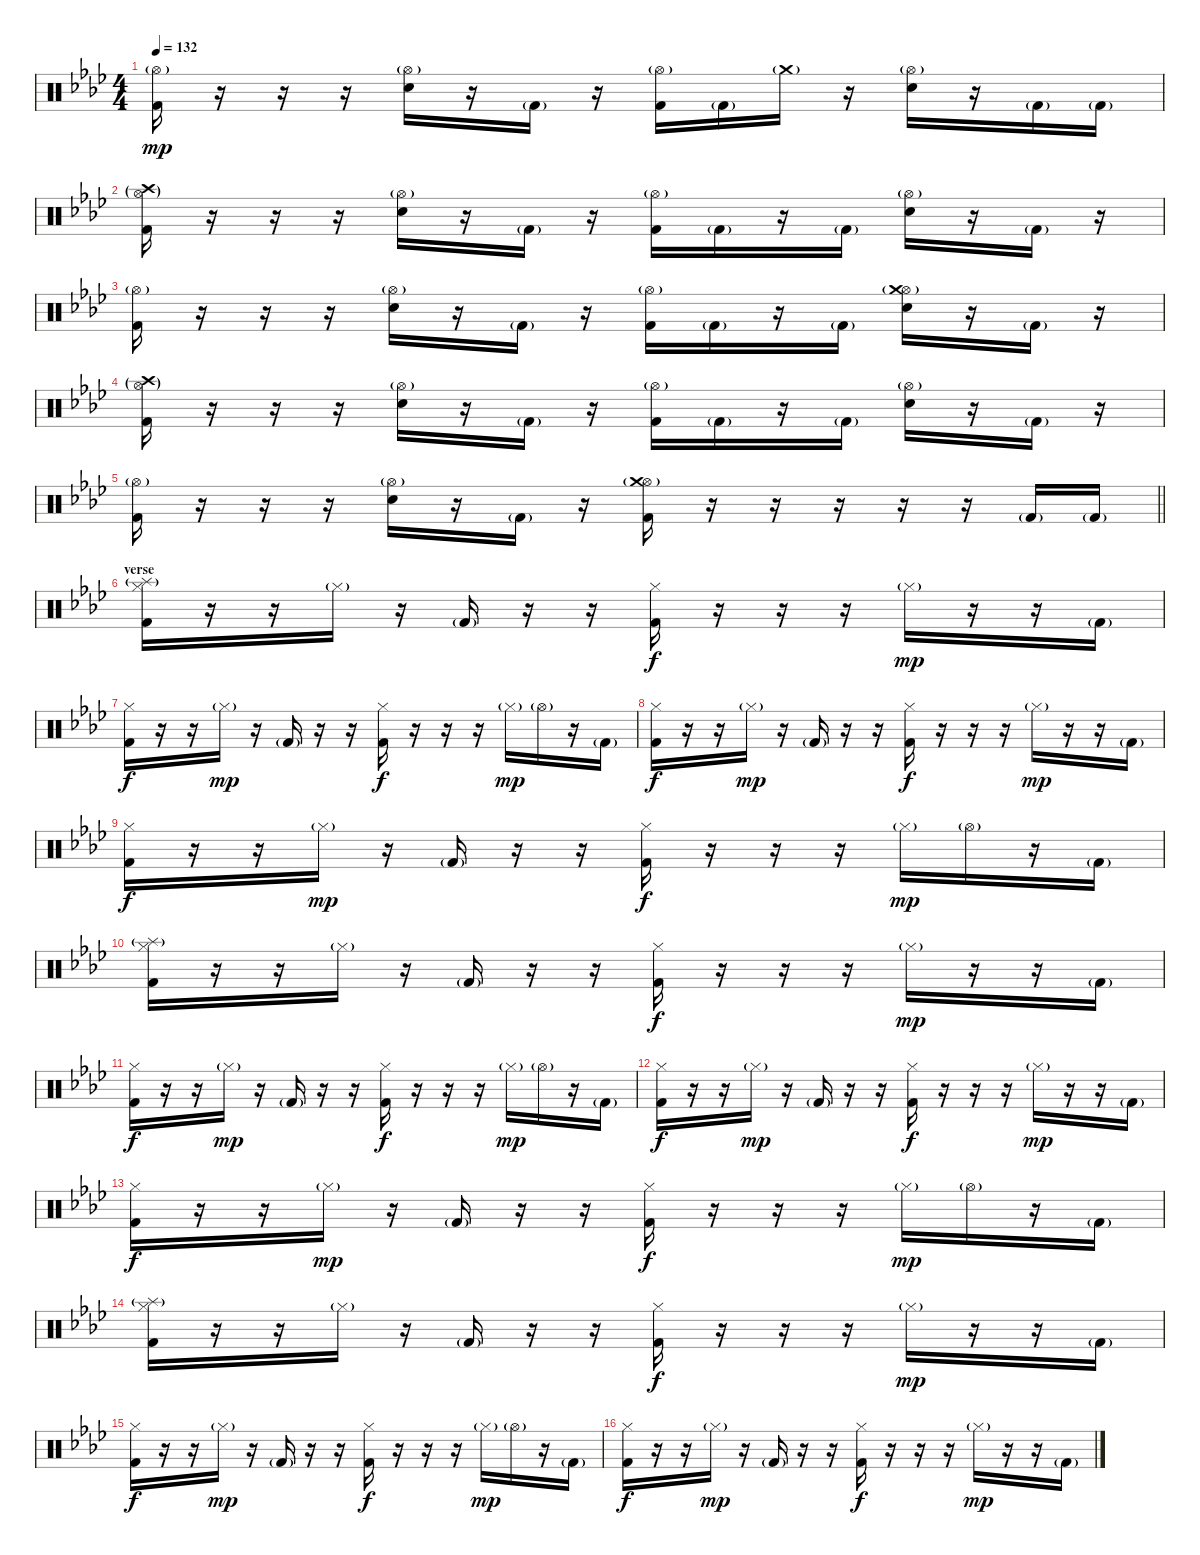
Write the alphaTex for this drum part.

\track "" {instrument percussion}
\staff {score}
\articulation defaults
\ts (4 4)
\tempo 132
\clef neutral
\ks fminor
("Kick (hit) 2" "Hi-Hat (open)"{g}).16{dy mp} r.16 r.16 r.16 ("Electric Snare (hit)" "Hi-Hat (open)"{g}).16 r.16 "Kick (hit) 2"{g}.16 r.16 ("Kick (hit) 2" "Hi-Hat (open)"{g}).16 "Kick (hit) 2"{g}.16 "Crash medium (hit)"{g}.16 r.16 ("Electric Snare (hit)" "Hi-Hat (open)"{g}).16 r.16 "Kick (hit) 2"{g}.16 "Kick (hit) 2"{g}.16 |
("Kick (hit) 2" "Hi-Hat (open)"{g} "Crash high (hit)"{g}).16 r.16 r.16 r.16 ("Electric Snare (hit)" "Hi-Hat (open)"{g}).16 r.16 "Kick (hit) 2"{g}.16 r.16 ("Kick (hit) 2" "Hi-Hat (open)"{g}).16 "Kick (hit) 2"{g}.16 r.16 "Kick (hit) 2"{g}.16 ("Electric Snare (hit)" "Hi-Hat (open)"{g}).16 r.16 "Kick (hit) 2"{g}.16 r.16 |
("Kick (hit) 2" "Hi-Hat (open)"{g}).16 r.16 r.16 r.16 ("Electric Snare (hit)" "Hi-Hat (open)"{g}).16 r.16 "Kick (hit) 2"{g}.16 r.16 ("Kick (hit) 2" "Hi-Hat (open)"{g}).16 "Kick (hit) 2"{g}.16 r.16 "Kick (hit) 2"{g}.16 ("Electric Snare (hit)" "Hi-Hat (open)"{g} "Crash medium (hit)"{g}).16 r.16 "Kick (hit) 2"{g}.16 r.16 |
("Kick (hit) 2" "Hi-Hat (open)"{g} "Crash high (hit)"{g}).16 r.16 r.16 r.16 ("Electric Snare (hit)" "Hi-Hat (open)"{g}).16 r.16 "Kick (hit) 2"{g}.16 r.16 ("Kick (hit) 2" "Hi-Hat (open)"{g}).16 "Kick (hit) 2"{g}.16 r.16 "Kick (hit) 2"{g}.16 ("Electric Snare (hit)" "Hi-Hat (open)"{g}).16 r.16 "Kick (hit) 2"{g}.16 r.16 |
\barLineRight lightlight
("Kick (hit) 2" "Hi-Hat (open)"{g}).16 r.16 r.16 r.16 ("Electric Snare (hit)" "Hi-Hat (open)"{g}).16 r.16 "Kick (hit) 2"{g}.16 r.16 ("Kick (hit) 2" "Hi-Hat (open)"{g} "Crash medium (hit)"{g}).16 r.16 r.16 r.16 r.16 r.16 "Kick (hit) 2"{g}.16 "Kick (hit) 2"{g}.16 |
\section ("" "verse")
("Kick (hit) 2" "Hi-Hat (closed)" "Splash (hit)"{g}).16 r.16 r.16 "Hi-Hat (closed)"{g}.16 r.16 "Kick (hit) 2"{g}.16 r.16 r.16 ("Kick (hit) 2" "Hi-Hat (closed)").16{dy f} r.16 r.16 r.16 "Hi-Hat (closed)"{g}.16{dy mp} r.16 r.16 "Kick (hit) 2"{g}.16 |
("Kick (hit) 2" "Hi-Hat (closed)").16{dy f} r.16 r.16 "Hi-Hat (closed)"{g}.16{dy mp} r.16 "Kick (hit) 2"{g}.16 r.16 r.16 ("Kick (hit) 2" "Hi-Hat (closed)").16{dy f} r.16 r.16 r.16 "Hi-Hat (closed)"{g}.16{dy mp} "Hi-Hat (open)"{g}.16 r.16 "Kick (hit) 2"{g}.16 |
("Kick (hit) 2" "Hi-Hat (closed)").16{dy f} r.16 r.16 "Hi-Hat (closed)"{g}.16{dy mp} r.16 "Kick (hit) 2"{g}.16 r.16 r.16 ("Kick (hit) 2" "Hi-Hat (closed)").16{dy f} r.16 r.16 r.16 "Hi-Hat (closed)"{g}.16{dy mp} r.16 r.16 "Kick (hit) 2"{g}.16 |
("Kick (hit) 2" "Hi-Hat (closed)").16{dy f} r.16 r.16 "Hi-Hat (closed)"{g}.16{dy mp} r.16 "Kick (hit) 2"{g}.16 r.16 r.16 ("Kick (hit) 2" "Hi-Hat (closed)").16{dy f} r.16 r.16 r.16 "Hi-Hat (closed)"{g}.16{dy mp} "Hi-Hat (open)"{g}.16 r.16 "Kick (hit) 2"{g}.16 |
("Kick (hit) 2" "Hi-Hat (closed)" "Splash (hit)"{g}).16 r.16 r.16 "Hi-Hat (closed)"{g}.16 r.16 "Kick (hit) 2"{g}.16 r.16 r.16 ("Kick (hit) 2" "Hi-Hat (closed)").16{dy f} r.16 r.16 r.16 "Hi-Hat (closed)"{g}.16{dy mp} r.16 r.16 "Kick (hit) 2"{g}.16 |
("Kick (hit) 2" "Hi-Hat (closed)").16{dy f} r.16 r.16 "Hi-Hat (closed)"{g}.16{dy mp} r.16 "Kick (hit) 2"{g}.16 r.16 r.16 ("Kick (hit) 2" "Hi-Hat (closed)").16{dy f} r.16 r.16 r.16 "Hi-Hat (closed)"{g}.16{dy mp} "Hi-Hat (open)"{g}.16 r.16 "Kick (hit) 2"{g}.16 |
("Kick (hit) 2" "Hi-Hat (closed)").16{dy f} r.16 r.16 "Hi-Hat (closed)"{g}.16{dy mp} r.16 "Kick (hit) 2"{g}.16 r.16 r.16 ("Kick (hit) 2" "Hi-Hat (closed)").16{dy f} r.16 r.16 r.16 "Hi-Hat (closed)"{g}.16{dy mp} r.16 r.16 "Kick (hit) 2"{g}.16 |
("Kick (hit) 2" "Hi-Hat (closed)").16{dy f} r.16 r.16 "Hi-Hat (closed)"{g}.16{dy mp} r.16 "Kick (hit) 2"{g}.16 r.16 r.16 ("Kick (hit) 2" "Hi-Hat (closed)").16{dy f} r.16 r.16 r.16 "Hi-Hat (closed)"{g}.16{dy mp} "Hi-Hat (open)"{g}.16 r.16 "Kick (hit) 2"{g}.16 |
("Kick (hit) 2" "Hi-Hat (closed)" "Splash (hit)"{g}).16 r.16 r.16 "Hi-Hat (closed)"{g}.16 r.16 "Kick (hit) 2"{g}.16 r.16 r.16 ("Kick (hit) 2" "Hi-Hat (closed)").16{dy f} r.16 r.16 r.16 "Hi-Hat (closed)"{g}.16{dy mp} r.16 r.16 "Kick (hit) 2"{g}.16 |
("Kick (hit) 2" "Hi-Hat (closed)").16{dy f} r.16 r.16 "Hi-Hat (closed)"{g}.16{dy mp} r.16 "Kick (hit) 2"{g}.16 r.16 r.16 ("Kick (hit) 2" "Hi-Hat (closed)").16{dy f} r.16 r.16 r.16 "Hi-Hat (closed)"{g}.16{dy mp} "Hi-Hat (open)"{g}.16 r.16 "Kick (hit) 2"{g}.16 |
("Kick (hit) 2" "Hi-Hat (closed)").16{dy f} r.16 r.16 "Hi-Hat (closed)"{g}.16{dy mp} r.16 "Kick (hit) 2"{g}.16 r.16 r.16 ("Kick (hit) 2" "Hi-Hat (closed)").16{dy f} r.16 r.16 r.16 "Hi-Hat (closed)"{g}.16{dy mp} r.16 r.16 "Kick (hit) 2"{g}.16
